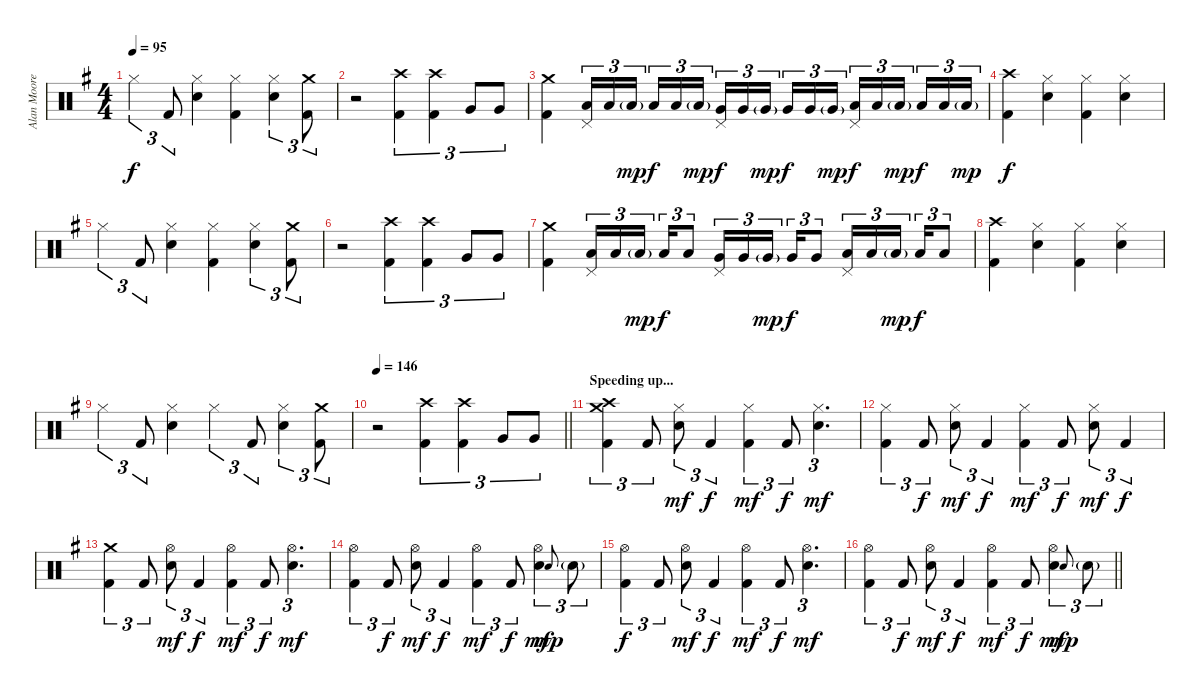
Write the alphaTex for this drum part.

\track ("Alan Moore" "Alan Moore") {instrument percussion}
\staff {score}
\articulation defaults
\ts (4 4)
\tempo 95
\clef neutral
\ks eminor "Hi-Hat (closed)".4{tu (3 2) dy f} "Kick (hit) 2".8{tu (3 2)}
("Hi-Hat (closed)" "Electric Snare (hit)").4 ("Hi-Hat (closed)" "Kick (hit) 2").4 ("Hi-Hat (closed)" "Electric Snare (hit)").4{tu (3 2)} ("Crash medium (hit)" "Kick (hit) 2").8{tu (3 2)} |
r.2 ("Crash high (hit)" "Kick (hit) 2").4{tu (3 2)} ("Crash high (hit)" "Kick (hit) 2").4{tu (3 2)} "Very Low Tom (hit)".8{tu (3 2)} "Very Low Tom (hit)".8{tu (3 2)} |
("Crash medium (hit)" "Kick (hit) 2").4 ("Pedal Hi-Hat (hit)" "Low Tom (hit)").16{tu (3 2)} "Low Tom (hit)".16{tu (3 2)} "Low Tom (hit)"{g}.16{tu (3 2) dy mp beam splitsecondary} "Low Tom (hit)".16{tu (3 2) dy f} "Low Tom (hit)".16{tu (3 2)} "Low Tom (hit)"{g}.16{tu (3 2) dy mp} ("Pedal Hi-Hat (hit)" "Very Low Tom (hit)").16{tu (3 2) dy f} "Very Low Tom (hit)".16{tu (3 2)} "Very Low Tom (hit)"{g}.16{tu (3 2) dy mp beam splitsecondary} "Very Low Tom (hit)".16{tu (3 2) dy f} "Very Low Tom (hit)".16{tu (3 2)} "Very Low Tom (hit)"{g}.16{tu (3 2) dy mp} ("Pedal Hi-Hat (hit)" "Low Floor Tom (hit)").16{tu (3 2) dy f} "Low Floor Tom (hit)".16{tu (3 2)} "Low Floor Tom (hit)"{g}.16{tu (3 2) dy mp beam splitsecondary} "Low Floor Tom (hit)".16{tu (3 2) dy f} "Low Floor Tom (hit)".16{tu (3 2)} "Low Floor Tom (hit)"{g}.16{tu (3 2) dy mp} |
("Crash high (hit)" "Kick (hit) 2").4{dy f} ("Hi-Hat (closed)" "Electric Snare (hit)").4 ("Hi-Hat (closed)" "Kick (hit) 2").4 ("Hi-Hat (closed)" "Electric Snare (hit)").4 |
"Hi-Hat (closed)".4{tu (3 2)} "Kick (hit) 2".8{tu (3 2)} ("Hi-Hat (closed)" "Electric Snare (hit)").4 ("Hi-Hat (closed)" "Kick (hit) 2").4 ("Hi-Hat (closed)" "Electric Snare (hit)").4{tu (3 2)} ("Crash medium (hit)" "Kick (hit) 2").8{tu (3 2)} |
r.2 ("Crash high (hit)" "Kick (hit) 2").4{tu (3 2)} ("Crash high (hit)" "Kick (hit) 2").4{tu (3 2)} "Very Low Tom (hit)".8{tu (3 2)} "Very Low Tom (hit)".8{tu (3 2)} |
("Crash medium (hit)" "Kick (hit) 2").4 ("Pedal Hi-Hat (hit)" "Low Tom (hit)").16{tu (3 2)} "Low Tom (hit)".16{tu (3 2)} "Low Tom (hit)"{g}.16{tu (3 2) dy mp beam splitsecondary} "Low Tom (hit)".16{tu (3 2) dy f} "Low Tom (hit)".8{tu (3 2)} ("Pedal Hi-Hat (hit)" "Very Low Tom (hit)").16{tu (3 2)} "Very Low Tom (hit)".16{tu (3 2)} "Very Low Tom (hit)"{g}.16{tu (3 2) dy mp beam splitsecondary} "Very Low Tom (hit)".16{tu (3 2) dy f} "Very Low Tom (hit)".8{tu (3 2)} ("Pedal Hi-Hat (hit)" "Low Floor Tom (hit)").16{tu (3 2)} "Low Floor Tom (hit)".16{tu (3 2)} "Low Floor Tom (hit)"{g}.16{tu (3 2) dy mp beam splitsecondary} "Low Floor Tom (hit)".16{tu (3 2) dy f} "Low Floor Tom (hit)".8{tu (3 2)} |
("Crash high (hit)" "Kick (hit) 2").4 ("Hi-Hat (closed)" "Electric Snare (hit)").4 ("Hi-Hat (closed)" "Kick (hit) 2").4 ("Hi-Hat (closed)" "Electric Snare (hit)").4 |
"Hi-Hat (closed)".4{tu (3 2)} "Kick (hit) 2".8{tu (3 2)} ("Hi-Hat (closed)" "Electric Snare (hit)").4 "Hi-Hat (closed)".4{tu (3 2)} "Kick (hit) 2".8{tu (3 2)} ("Hi-Hat (closed)" "Electric Snare (hit)").4{tu (3 2)} ("Crash medium (hit)" "Kick (hit) 2").8{tu (3 2)} |
\tempo 146
\barLineRight lightlight
r.2 ("Crash high (hit)" "Kick (hit) 2").4{tu (3 2)} ("Crash high (hit)" "Kick (hit) 2").4{tu (3 2)} "Very Low Tom (hit)".8{tu (3 2)} "Very Low Tom (hit)".8{tu (3 2)} |
\section ("" "Speeding up...")
("Crash medium (hit)" "Crash high (hit)" "Kick (hit) 2").4{tu (3 2)} "Kick (hit) 2".8{tu (3 2)} ("Hi-Hat (closed)" "Electric Snare (hit)").8{tu (3 2) dy mf} "Kick (hit) 2".4{tu (3 2) dy f} ("Hi-Hat (closed)" "Kick (hit) 2").4{tu (3 2) dy mf} "Kick (hit) 2".8{tu (3 2) dy f} ("Hi-Hat (closed)" "Electric Snare (hit)").4{d tu (3 2) dy mf} |
("Hi-Hat (closed)" "Kick (hit) 2").4{tu (3 2)} "Kick (hit) 2".8{tu (3 2) dy f} ("Hi-Hat (closed)" "Electric Snare (hit)").8{tu (3 2) dy mf} "Kick (hit) 2".4{tu (3 2) dy f} ("Hi-Hat (closed)" "Kick (hit) 2").4{tu (3 2) dy mf} "Kick (hit) 2".8{tu (3 2) dy f} ("Hi-Hat (closed)" "Electric Snare (hit)").8{tu (3 2) dy mf} "Kick (hit) 2".4{tu (3 2) dy f} |
("Crash medium (hit)" "Kick (hit) 2").4{tu (3 2)} "Kick (hit) 2".8{tu (3 2)} ("Hi-Hat (open)" "Electric Snare (hit)").8{tu (3 2) dy mf} "Kick (hit) 2".4{tu (3 2) dy f} ("Hi-Hat (open)" "Kick (hit) 2").4{tu (3 2) dy mf} "Kick (hit) 2".8{tu (3 2) dy f} ("Hi-Hat (open)" "Electric Snare (hit)").4{d tu (3 2) dy mf} |
("Hi-Hat (open)" "Kick (hit) 2").4{tu (3 2)} "Kick (hit) 2".8{tu (3 2) dy f} ("Hi-Hat (open)" "Electric Snare (hit)").8{tu (3 2) dy mf} "Kick (hit) 2".4{tu (3 2) dy f} ("Hi-Hat (open)" "Kick (hit) 2").4{tu (3 2) dy mf} "Kick (hit) 2".8{tu (3 2) dy f} ("Hi-Hat (open)" "Electric Snare (hit)").4{tu (3 2) dy mf} "Electric Snare (hit)".8{gr onbeat dy mp} "Electric Snare (hit)"{g}.8{tu (3 2)} |
("Hi-Hat (open)" "Kick (hit) 2").4{tu (3 2) dy f} "Kick (hit) 2".8{tu (3 2)} ("Hi-Hat (open)" "Electric Snare (hit)").8{tu (3 2) dy mf} "Kick (hit) 2".4{tu (3 2) dy f} ("Hi-Hat (open)" "Kick (hit) 2").4{tu (3 2) dy mf} "Kick (hit) 2".8{tu (3 2) dy f} ("Hi-Hat (open)" "Electric Snare (hit)").4{d tu (3 2) dy mf} |
\barLineRight lightlight
("Hi-Hat (open)" "Kick (hit) 2").4{tu (3 2)} "Kick (hit) 2".8{tu (3 2) dy f} ("Hi-Hat (open)" "Electric Snare (hit)").8{tu (3 2) dy mf} "Kick (hit) 2".4{tu (3 2) dy f} ("Hi-Hat (open)" "Kick (hit) 2").4{tu (3 2) dy mf} "Kick (hit) 2".8{tu (3 2) dy f} ("Hi-Hat (open)" "Electric Snare (hit)").4{tu (3 2) dy mf} "Electric Snare (hit)".8{gr onbeat dy mp} "Electric Snare (hit)"{g}.8{tu (3 2)}
